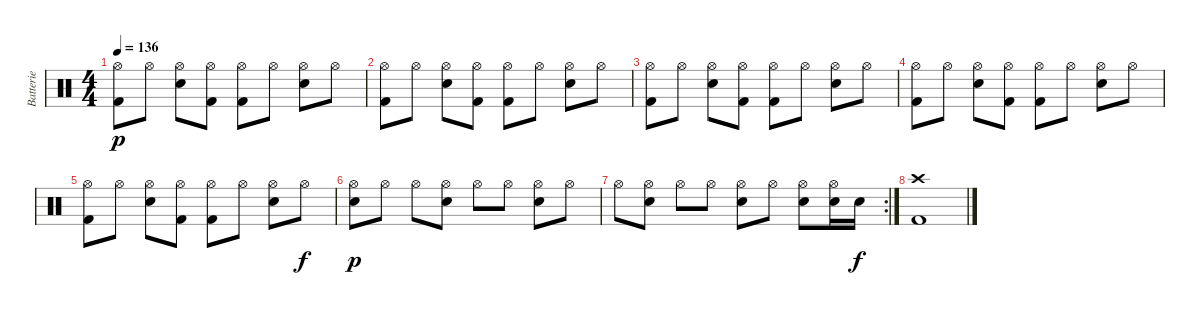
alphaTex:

\track ("Batterie" "Batterie") {instrument percussion}
\staff {score}
\articulation defaults
\ts (4 4)
\tempo 136
\clef neutral
\ks c
("Hi-Hat (open)" "Kick (hit) 2").8{dy p} "Hi-Hat (open)".8 ("Hi-Hat (open)" "Electric Snare (hit)").8 ("Hi-Hat (open)" "Kick (hit) 2").8 ("Hi-Hat (open)" "Kick (hit) 2").8 "Hi-Hat (open)".8 ("Hi-Hat (open)" "Electric Snare (hit)").8 "Hi-Hat (open)".8 |
("Hi-Hat (open)" "Kick (hit) 2").8 "Hi-Hat (open)".8 ("Hi-Hat (open)" "Electric Snare (hit)").8 ("Hi-Hat (open)" "Kick (hit) 2").8 ("Hi-Hat (open)" "Kick (hit) 2").8 "Hi-Hat (open)".8 ("Hi-Hat (open)" "Electric Snare (hit)").8 "Hi-Hat (open)".8 |
("Hi-Hat (open)" "Kick (hit) 2").8 "Hi-Hat (open)".8 ("Hi-Hat (open)" "Electric Snare (hit)").8 ("Hi-Hat (open)" "Kick (hit) 2").8 ("Hi-Hat (open)" "Kick (hit) 2").8 "Hi-Hat (open)".8 ("Hi-Hat (open)" "Electric Snare (hit)").8 "Hi-Hat (open)".8 |
("Hi-Hat (open)" "Kick (hit) 2").8 "Hi-Hat (open)".8 ("Hi-Hat (open)" "Electric Snare (hit)").8 ("Hi-Hat (open)" "Kick (hit) 2").8 ("Hi-Hat (open)" "Kick (hit) 2").8 "Hi-Hat (open)".8 ("Hi-Hat (open)" "Electric Snare (hit)").8 "Hi-Hat (open)".8 |
("Hi-Hat (open)" "Kick (hit) 2").8 "Hi-Hat (open)".8 ("Hi-Hat (open)" "Electric Snare (hit)").8 ("Hi-Hat (open)" "Kick (hit) 2").8 ("Hi-Hat (open)" "Kick (hit) 2").8 "Hi-Hat (open)".8 ("Hi-Hat (open)" "Electric Snare (hit)").8 "Hi-Hat (open)".8{dy f} |
("Hi-Hat (open)" "Electric Snare (hit)").8{dy p} "Hi-Hat (open)".8 "Hi-Hat (open)".8 ("Hi-Hat (open)" "Electric Snare (hit)").8 "Hi-Hat (open)".8 "Hi-Hat (open)".8 ("Hi-Hat (open)" "Electric Snare (hit)").8 "Hi-Hat (open)".8 |
\rc 2 "Hi-Hat (open)".8
("Hi-Hat (open)" "Electric Snare (hit)").8 "Hi-Hat (open)".8 "Hi-Hat (open)".8 ("Hi-Hat (open)" "Electric Snare (hit)").8 "Hi-Hat (open)".8 ("Hi-Hat (open)" "Electric Snare (hit)").8 ("Hi-Hat (open)" "Electric Snare (hit)").16 "Electric Snare (hit)".16{dy f} |
("Crash high (hit)" "Kick (hit) 2").1
